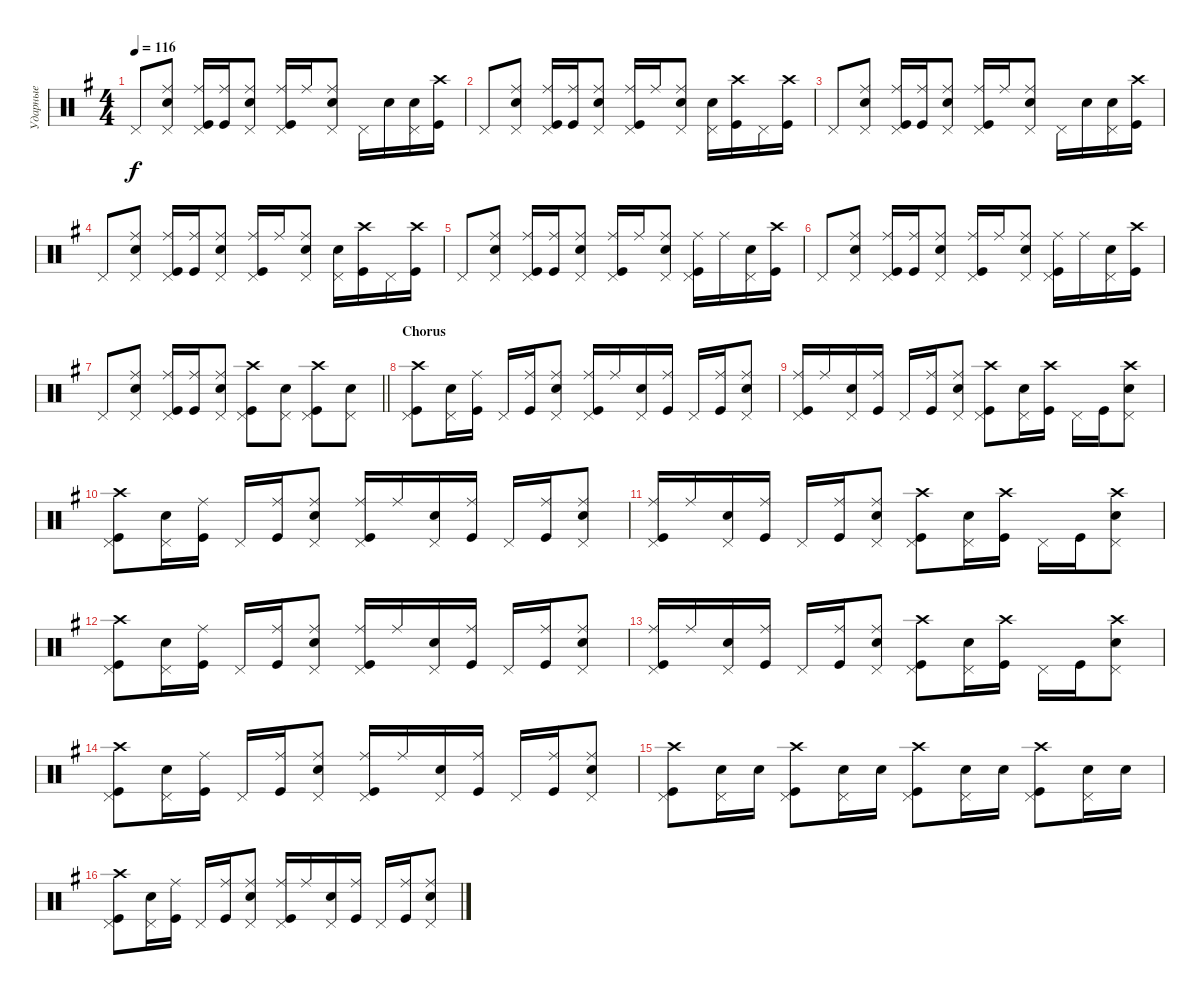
\track ("Ударные" "Ударные") {instrument percussion}
\staff {score}
\articulation defaults
\ts (4 4)
\tempo 116
\clef neutral
\ks eminor "Pedal Hi-Hat (hit)".8{dy f}
("Snare (hit) 2" "Pedal Hi-Hat (hit)" "Ride (middle)").8 ("Kick (hit)" "Pedal Hi-Hat (hit)" "Ride (middle)").16 ("Kick (hit)" "Ride (middle)").16 ("Snare (hit) 2" "Pedal Hi-Hat (hit)" "Ride (middle)").8 ("Pedal Hi-Hat (hit)" "Kick (hit)" "Ride (middle)").16 "Ride (middle)".16 ("Snare (hit) 2" "Pedal Hi-Hat (hit)" "Ride (middle)").8 "Pedal Hi-Hat (hit)".16 "Snare (hit) 2".16 ("Snare (hit) 2" "Pedal Hi-Hat (hit)").16 ("Kick (hit)" "Crash high (hit)").16 |
"Pedal Hi-Hat (hit)".8 ("Snare (hit) 2" "Pedal Hi-Hat (hit)" "Ride (middle)").8 ("Kick (hit)" "Pedal Hi-Hat (hit)" "Ride (middle)").16 ("Kick (hit)" "Ride (middle)").16 ("Snare (hit) 2" "Pedal Hi-Hat (hit)" "Ride (middle)").8 ("Pedal Hi-Hat (hit)" "Kick (hit)" "Ride (middle)").16 "Ride (middle)".16 ("Snare (hit) 2" "Pedal Hi-Hat (hit)" "Ride (middle)").8 ("Snare (hit) 2" "Pedal Hi-Hat (hit)").16 ("Kick (hit)" "Crash high (hit)").16 "Pedal Hi-Hat (hit)".16 ("Kick (hit)" "Crash high (hit)").16 |
"Pedal Hi-Hat (hit)".8 ("Snare (hit) 2" "Pedal Hi-Hat (hit)" "Ride (middle)").8 ("Kick (hit)" "Pedal Hi-Hat (hit)" "Ride (middle)").16 ("Kick (hit)" "Ride (middle)").16 ("Snare (hit) 2" "Pedal Hi-Hat (hit)" "Ride (middle)").8 ("Pedal Hi-Hat (hit)" "Kick (hit)" "Ride (middle)").16 "Ride (middle)".16 ("Snare (hit) 2" "Pedal Hi-Hat (hit)" "Ride (middle)").8 "Pedal Hi-Hat (hit)".16 "Snare (hit) 2".16 ("Snare (hit) 2" "Pedal Hi-Hat (hit)").16 ("Kick (hit)" "Crash high (hit)").16 |
"Pedal Hi-Hat (hit)".8 ("Snare (hit) 2" "Pedal Hi-Hat (hit)" "Ride (middle)").8 ("Kick (hit)" "Pedal Hi-Hat (hit)" "Ride (middle)").16 ("Kick (hit)" "Ride (middle)").16 ("Snare (hit) 2" "Pedal Hi-Hat (hit)" "Ride (middle)").8 ("Pedal Hi-Hat (hit)" "Kick (hit)" "Ride (middle)").16 "Ride (middle)".16 ("Snare (hit) 2" "Pedal Hi-Hat (hit)" "Ride (middle)").8 ("Snare (hit) 2" "Pedal Hi-Hat (hit)").16 ("Kick (hit)" "Crash high (hit)").16 "Pedal Hi-Hat (hit)".16 ("Kick (hit)" "Crash high (hit)").16 |
"Pedal Hi-Hat (hit)".8 ("Snare (hit) 2" "Pedal Hi-Hat (hit)" "Ride (middle)").8 ("Kick (hit)" "Pedal Hi-Hat (hit)" "Ride (middle)").16 ("Kick (hit)" "Ride (middle)").16 ("Snare (hit) 2" "Pedal Hi-Hat (hit)" "Ride (middle)").8 ("Kick (hit)" "Pedal Hi-Hat (hit)" "Ride (middle)").16 "Ride (middle)".16 ("Snare (hit) 2" "Pedal Hi-Hat (hit)" "Ride (middle)").8 ("Kick (hit)" "Ride (middle)" "Pedal Hi-Hat (hit)").16 "Ride (middle)".16 ("Snare (hit) 2" "Pedal Hi-Hat (hit)").16 ("Kick (hit)" "Crash high (hit)").16 |
"Pedal Hi-Hat (hit)".8 ("Snare (hit) 2" "Pedal Hi-Hat (hit)" "Ride (middle)").8 ("Kick (hit)" "Pedal Hi-Hat (hit)" "Ride (middle)").16 ("Kick (hit)" "Ride (middle)").16 ("Snare (hit) 2" "Pedal Hi-Hat (hit)" "Ride (middle)").8 ("Kick (hit)" "Pedal Hi-Hat (hit)" "Ride (middle)").16 "Ride (middle)".16 ("Snare (hit) 2" "Pedal Hi-Hat (hit)" "Ride (middle)").8 ("Kick (hit)" "Ride (middle)" "Pedal Hi-Hat (hit)").16 "Ride (middle)".16 ("Snare (hit) 2" "Pedal Hi-Hat (hit)").16 ("Kick (hit)" "Crash high (hit)").16 |
\barLineRight lightlight "Pedal Hi-Hat (hit)".8
("Snare (hit) 2" "Pedal Hi-Hat (hit)" "Ride (middle)").8 ("Kick (hit)" "Pedal Hi-Hat (hit)" "Ride (middle)").16 ("Kick (hit)" "Ride (middle)").16 ("Snare (hit) 2" "Pedal Hi-Hat (hit)" "Ride (middle)").8 ("Kick (hit)" "Crash high (hit)" "Pedal Hi-Hat (hit)").8 ("Snare (hit) 2" "Pedal Hi-Hat (hit)").8 ("Kick (hit)" "Crash high (hit)" "Pedal Hi-Hat (hit)").8 ("Snare (hit) 2" "Pedal Hi-Hat (hit)").8 |
\section ("" "Chorus")
("Kick (hit)" "Crash high (hit)" "Pedal Hi-Hat (hit)").8 ("Snare (hit) 2" "Pedal Hi-Hat (hit)").16 ("Kick (hit)" "Ride (middle)").16 "Pedal Hi-Hat (hit)".16 ("Ride (middle)" "Kick (hit)").16 ("Snare (hit) 2" "Ride (middle)" "Pedal Hi-Hat (hit)").8 ("Kick (hit)" "Ride (middle)" "Pedal Hi-Hat (hit)").16 "Ride (middle)".16 ("Snare (hit) 2" "Pedal Hi-Hat (hit)").16 ("Kick (hit)" "Ride (middle)").16 "Pedal Hi-Hat (hit)".16 ("Ride (middle)" "Kick (hit)").16 ("Ride (middle)" "Snare (hit) 2" "Pedal Hi-Hat (hit)").8 |
("Kick (hit)" "Ride (middle)" "Pedal Hi-Hat (hit)").16 "Ride (middle)".16 ("Snare (hit) 2" "Pedal Hi-Hat (hit)").16 ("Kick (hit)" "Ride (middle)").16 "Pedal Hi-Hat (hit)".16 ("Ride (middle)" "Kick (hit)").16 ("Snare (hit) 2" "Ride (middle)" "Pedal Hi-Hat (hit)").8 ("Kick (hit)" "Crash high (hit)" "Pedal Hi-Hat (hit)").8 ("Snare (hit) 2" "Pedal Hi-Hat (hit)").16 ("Kick (hit)" "Crash high (hit)").16 "Pedal Hi-Hat (hit)".16 "Kick (hit)".16 ("Crash high (hit)" "Snare (hit) 2" "Pedal Hi-Hat (hit)").8 |
("Kick (hit)" "Crash high (hit)" "Pedal Hi-Hat (hit)").8 ("Snare (hit) 2" "Pedal Hi-Hat (hit)").16 ("Kick (hit)" "Ride (middle)").16 "Pedal Hi-Hat (hit)".16 ("Ride (middle)" "Kick (hit)").16 ("Snare (hit) 2" "Ride (middle)" "Pedal Hi-Hat (hit)").8 ("Kick (hit)" "Ride (middle)" "Pedal Hi-Hat (hit)").16 "Ride (middle)".16 ("Snare (hit) 2" "Pedal Hi-Hat (hit)").16 ("Kick (hit)" "Ride (middle)").16 "Pedal Hi-Hat (hit)".16 ("Ride (middle)" "Kick (hit)").16 ("Ride (middle)" "Snare (hit) 2" "Pedal Hi-Hat (hit)").8 |
("Kick (hit)" "Ride (middle)" "Pedal Hi-Hat (hit)").16 "Ride (middle)".16 ("Snare (hit) 2" "Pedal Hi-Hat (hit)").16 ("Kick (hit)" "Ride (middle)").16 "Pedal Hi-Hat (hit)".16 ("Ride (middle)" "Kick (hit)").16 ("Snare (hit) 2" "Ride (middle)" "Pedal Hi-Hat (hit)").8 ("Kick (hit)" "Crash high (hit)" "Pedal Hi-Hat (hit)").8 ("Snare (hit) 2" "Pedal Hi-Hat (hit)").16 ("Kick (hit)" "Crash high (hit)").16 "Pedal Hi-Hat (hit)".16 "Kick (hit)".16 ("Crash high (hit)" "Snare (hit) 2" "Pedal Hi-Hat (hit)").8 |
("Kick (hit)" "Crash high (hit)" "Pedal Hi-Hat (hit)").8 ("Snare (hit) 2" "Pedal Hi-Hat (hit)").16 ("Kick (hit)" "Ride (middle)").16 "Pedal Hi-Hat (hit)".16 ("Ride (middle)" "Kick (hit)").16 ("Snare (hit) 2" "Ride (middle)" "Pedal Hi-Hat (hit)").8 ("Kick (hit)" "Ride (middle)" "Pedal Hi-Hat (hit)").16 "Ride (middle)".16 ("Snare (hit) 2" "Pedal Hi-Hat (hit)").16 ("Kick (hit)" "Ride (middle)").16 "Pedal Hi-Hat (hit)".16 ("Ride (middle)" "Kick (hit)").16 ("Ride (middle)" "Snare (hit) 2" "Pedal Hi-Hat (hit)").8 |
("Kick (hit)" "Ride (middle)" "Pedal Hi-Hat (hit)").16 "Ride (middle)".16 ("Snare (hit) 2" "Pedal Hi-Hat (hit)").16 ("Kick (hit)" "Ride (middle)").16 "Pedal Hi-Hat (hit)".16 ("Ride (middle)" "Kick (hit)").16 ("Snare (hit) 2" "Ride (middle)" "Pedal Hi-Hat (hit)").8 ("Kick (hit)" "Crash high (hit)" "Pedal Hi-Hat (hit)").8 ("Snare (hit) 2" "Pedal Hi-Hat (hit)").16 ("Kick (hit)" "Crash high (hit)").16 "Pedal Hi-Hat (hit)".16 "Kick (hit)".16 ("Crash high (hit)" "Snare (hit) 2" "Pedal Hi-Hat (hit)").8 |
("Kick (hit)" "Crash high (hit)" "Pedal Hi-Hat (hit)").8 ("Snare (hit) 2" "Pedal Hi-Hat (hit)").16 ("Kick (hit)" "Ride (middle)").16 "Pedal Hi-Hat (hit)".16 ("Ride (middle)" "Kick (hit)").16 ("Snare (hit) 2" "Ride (middle)" "Pedal Hi-Hat (hit)").8 ("Kick (hit)" "Ride (middle)" "Pedal Hi-Hat (hit)").16 "Ride (middle)".16 ("Snare (hit) 2" "Pedal Hi-Hat (hit)").16 ("Kick (hit)" "Ride (middle)").16 "Pedal Hi-Hat (hit)".16 ("Ride (middle)" "Kick (hit)").16 ("Ride (middle)" "Snare (hit) 2" "Pedal Hi-Hat (hit)").8 |
("Kick (hit)" "Crash high (hit)" "Pedal Hi-Hat (hit)").8 ("Snare (hit) 2" "Pedal Hi-Hat (hit)").16 "Snare (hit) 2".16 ("Kick (hit)" "Crash high (hit)" "Pedal Hi-Hat (hit)").8 ("Snare (hit) 2" "Pedal Hi-Hat (hit)").16 "Snare (hit) 2".16 ("Kick (hit)" "Crash high (hit)" "Pedal Hi-Hat (hit)").8 ("Snare (hit) 2" "Pedal Hi-Hat (hit)").16 "Snare (hit) 2".16 ("Kick (hit)" "Crash high (hit)" "Pedal Hi-Hat (hit)").8 ("Snare (hit) 2" "Pedal Hi-Hat (hit)").16 "Snare (hit) 2".16 |
("Kick (hit)" "Crash high (hit)" "Pedal Hi-Hat (hit)").8 ("Snare (hit) 2" "Pedal Hi-Hat (hit)").16 ("Kick (hit)" "Ride (middle)").16 "Pedal Hi-Hat (hit)".16 ("Ride (middle)" "Kick (hit)").16 ("Snare (hit) 2" "Ride (middle)" "Pedal Hi-Hat (hit)").8 ("Kick (hit)" "Ride (middle)" "Pedal Hi-Hat (hit)").16 "Ride (middle)".16 ("Snare (hit) 2" "Pedal Hi-Hat (hit)").16 ("Kick (hit)" "Ride (middle)").16 "Pedal Hi-Hat (hit)".16 ("Ride (middle)" "Kick (hit)").16 ("Ride (middle)" "Snare (hit) 2" "Pedal Hi-Hat (hit)").8
